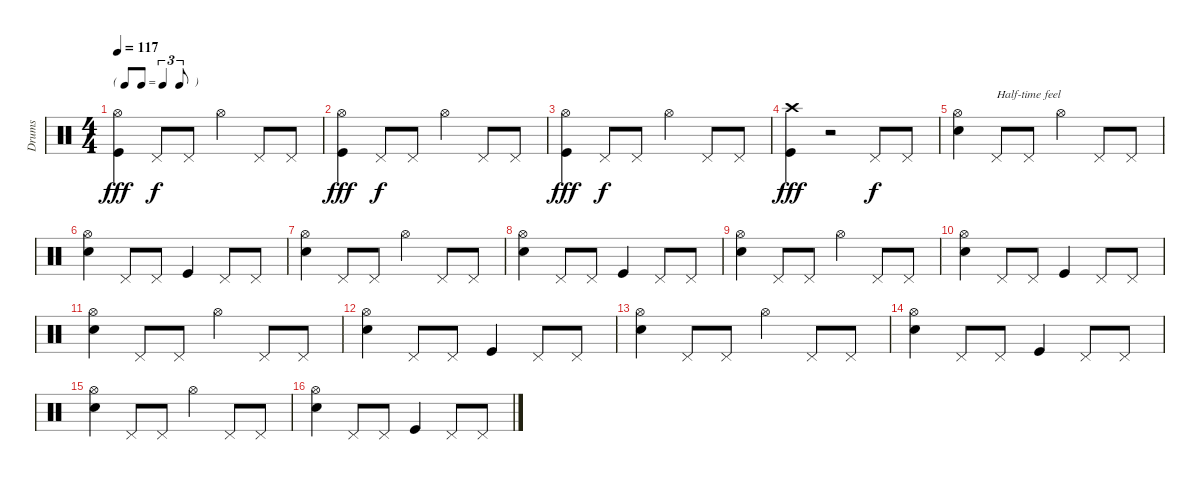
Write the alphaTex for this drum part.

\track ("Drums" "Drums") {instrument percussion}
\staff {score}
\articulation defaults
\ts (4 4)
\tf triplet8th
\tempo 117
\clef neutral
\ks c
("Hi-Hat (open)" "Kick (hit)").4{dy fff} "Pedal Hi-Hat (hit)".8{dy f} "Pedal Hi-Hat (hit)".8 "Hi-Hat (open)".4 "Pedal Hi-Hat (hit)".8 "Pedal Hi-Hat (hit)".8 |
("Hi-Hat (open)" "Kick (hit)").4{dy fff} "Pedal Hi-Hat (hit)".8{dy f} "Pedal Hi-Hat (hit)".8 "Hi-Hat (open)".4 "Pedal Hi-Hat (hit)".8 "Pedal Hi-Hat (hit)".8 |
("Hi-Hat (open)" "Kick (hit)").4{dy fff} "Pedal Hi-Hat (hit)".8{dy f} "Pedal Hi-Hat (hit)".8 "Hi-Hat (open)".4 "Pedal Hi-Hat (hit)".8 "Pedal Hi-Hat (hit)".8 |
("Crash high (hit)" "Kick (hit)").4{dy fff} r.2 "Pedal Hi-Hat (hit)".8{dy f} "Pedal Hi-Hat (hit)".8 |
("Hi-Hat (open)" "Snare (hit) 2").4 "Pedal Hi-Hat (hit)".8{txt "Half-time feel"} "Pedal Hi-Hat (hit)".8 "Hi-Hat (open)".4 "Pedal Hi-Hat (hit)".8 "Pedal Hi-Hat (hit)".8 |
("Hi-Hat (open)" "Snare (hit) 2").4 "Pedal Hi-Hat (hit)".8 "Pedal Hi-Hat (hit)".8 "Kick (hit)".4 "Pedal Hi-Hat (hit)".8 "Pedal Hi-Hat (hit)".8 |
("Hi-Hat (open)" "Snare (hit) 2").4 "Pedal Hi-Hat (hit)".8 "Pedal Hi-Hat (hit)".8 "Hi-Hat (open)".4 "Pedal Hi-Hat (hit)".8 "Pedal Hi-Hat (hit)".8 |
("Hi-Hat (open)" "Snare (hit) 2").4 "Pedal Hi-Hat (hit)".8 "Pedal Hi-Hat (hit)".8 "Kick (hit)".4 "Pedal Hi-Hat (hit)".8 "Pedal Hi-Hat (hit)".8 |
("Hi-Hat (open)" "Snare (hit) 2").4 "Pedal Hi-Hat (hit)".8 "Pedal Hi-Hat (hit)".8 "Hi-Hat (open)".4 "Pedal Hi-Hat (hit)".8 "Pedal Hi-Hat (hit)".8 |
("Hi-Hat (open)" "Snare (hit) 2").4 "Pedal Hi-Hat (hit)".8 "Pedal Hi-Hat (hit)".8 "Kick (hit)".4 "Pedal Hi-Hat (hit)".8 "Pedal Hi-Hat (hit)".8 |
("Hi-Hat (open)" "Snare (hit) 2").4 "Pedal Hi-Hat (hit)".8 "Pedal Hi-Hat (hit)".8 "Hi-Hat (open)".4 "Pedal Hi-Hat (hit)".8 "Pedal Hi-Hat (hit)".8 |
("Hi-Hat (open)" "Snare (hit) 2").4 "Pedal Hi-Hat (hit)".8 "Pedal Hi-Hat (hit)".8 "Kick (hit)".4 "Pedal Hi-Hat (hit)".8 "Pedal Hi-Hat (hit)".8 |
("Hi-Hat (open)" "Snare (hit) 2").4 "Pedal Hi-Hat (hit)".8 "Pedal Hi-Hat (hit)".8 "Hi-Hat (open)".4 "Pedal Hi-Hat (hit)".8 "Pedal Hi-Hat (hit)".8 |
("Hi-Hat (open)" "Snare (hit) 2").4 "Pedal Hi-Hat (hit)".8 "Pedal Hi-Hat (hit)".8 "Kick (hit)".4 "Pedal Hi-Hat (hit)".8 "Pedal Hi-Hat (hit)".8 |
("Hi-Hat (open)" "Snare (hit) 2").4 "Pedal Hi-Hat (hit)".8 "Pedal Hi-Hat (hit)".8 "Hi-Hat (open)".4 "Pedal Hi-Hat (hit)".8 "Pedal Hi-Hat (hit)".8 |
("Hi-Hat (open)" "Snare (hit) 2").4 "Pedal Hi-Hat (hit)".8 "Pedal Hi-Hat (hit)".8 "Kick (hit)".4 "Pedal Hi-Hat (hit)".8 "Pedal Hi-Hat (hit)".8
